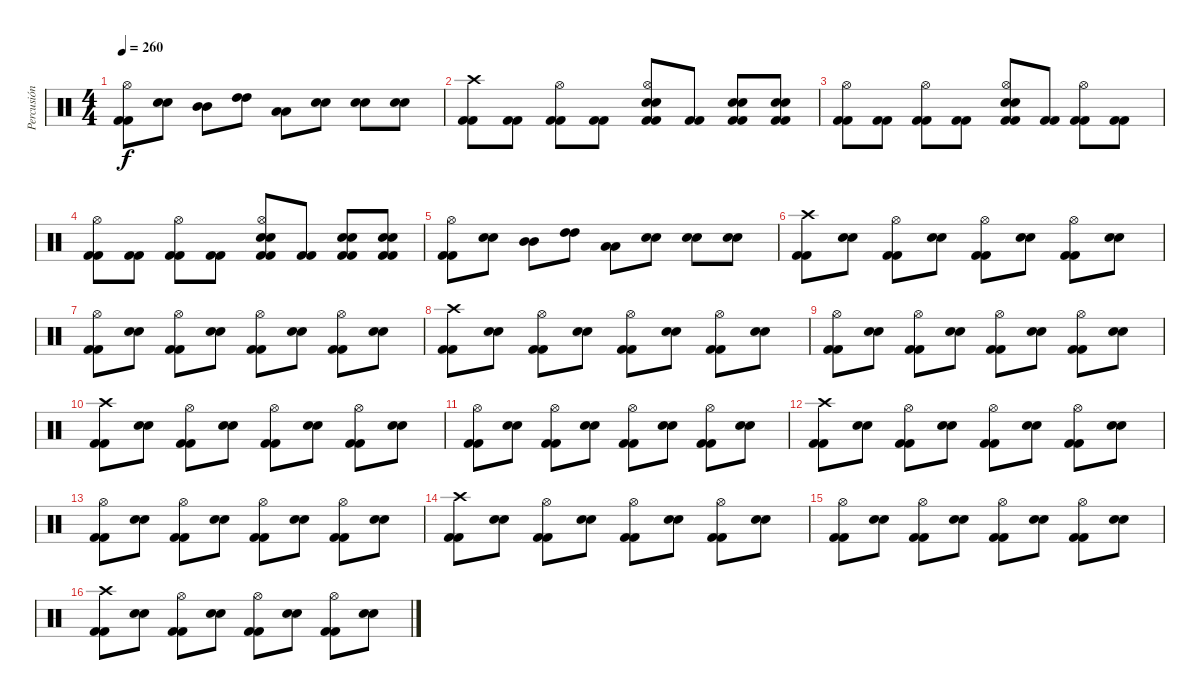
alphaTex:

\track ("Percusión" "Percusión") {instrument percussion}
\staff {score}
\articulation defaults
\ts (4 4)
\tempo 260
\clef neutral
\ks c
("Kick (hit) 2" "Kick (hit) 2" "Hi-Hat (open)").8{dy f} ("Electric Snare (hit)" "Electric Snare (hit)").8 ("Mid Tom (hit)" "Mid Tom (hit)").8 ("High Tom (hit)" "High Tom (hit)").8 ("Low Floor Tom (hit)" "Low Floor Tom (hit)").8 ("Electric Snare (hit)" "Electric Snare (hit)").8 ("Electric Snare (hit)" "Electric Snare (hit)").8 ("Electric Snare (hit)" "Electric Snare (hit)").8 |
("Kick (hit) 2" "Kick (hit) 2" "Crash high (hit)").8 ("Kick (hit) 2" "Kick (hit) 2").8 ("Kick (hit) 2" "Kick (hit) 2" "Hi-Hat (open)").8 ("Kick (hit) 2" "Kick (hit) 2").8 ("Kick (hit) 2" "Kick (hit) 2" "Electric Snare (hit)" "Electric Snare (hit)" "Hi-Hat (open)").8 ("Kick (hit) 2" "Kick (hit) 2").8 ("Kick (hit) 2" "Kick (hit) 2" "Electric Snare (hit)" "Electric Snare (hit)").8 ("Kick (hit) 2" "Kick (hit) 2" "Electric Snare (hit)" "Electric Snare (hit)").8 |
("Kick (hit) 2" "Kick (hit) 2" "Hi-Hat (open)").8 ("Kick (hit) 2" "Kick (hit) 2").8 ("Kick (hit) 2" "Kick (hit) 2" "Hi-Hat (open)").8 ("Kick (hit) 2" "Kick (hit) 2").8 ("Kick (hit) 2" "Kick (hit) 2" "Electric Snare (hit)" "Electric Snare (hit)" "Hi-Hat (open)").8 ("Kick (hit) 2" "Kick (hit) 2").8 ("Kick (hit) 2" "Kick (hit) 2" "Hi-Hat (open)").8 ("Kick (hit) 2" "Kick (hit) 2").8 |
("Kick (hit) 2" "Kick (hit) 2" "Hi-Hat (open)").8 ("Kick (hit) 2" "Kick (hit) 2").8 ("Kick (hit) 2" "Kick (hit) 2" "Hi-Hat (open)").8 ("Kick (hit) 2" "Kick (hit) 2").8 ("Kick (hit) 2" "Kick (hit) 2" "Electric Snare (hit)" "Electric Snare (hit)" "Hi-Hat (open)").8 ("Kick (hit) 2" "Kick (hit) 2").8 ("Kick (hit) 2" "Kick (hit) 2" "Electric Snare (hit)" "Electric Snare (hit)").8 ("Kick (hit) 2" "Kick (hit) 2" "Electric Snare (hit)" "Electric Snare (hit)").8 |
("Kick (hit) 2" "Kick (hit) 2" "Hi-Hat (open)").8 ("Electric Snare (hit)" "Electric Snare (hit)").8 ("Mid Tom (hit)" "Mid Tom (hit)").8 ("High Tom (hit)" "High Tom (hit)").8 ("Low Floor Tom (hit)" "Low Floor Tom (hit)").8 ("Electric Snare (hit)" "Electric Snare (hit)").8 ("Electric Snare (hit)" "Electric Snare (hit)").8 ("Electric Snare (hit)" "Electric Snare (hit)").8 |
("Kick (hit) 2" "Kick (hit) 2" "Crash high (hit)").8 ("Electric Snare (hit)" "Electric Snare (hit)").8 ("Kick (hit) 2" "Kick (hit) 2" "Hi-Hat (open)").8 ("Electric Snare (hit)" "Electric Snare (hit)").8 ("Kick (hit) 2" "Kick (hit) 2" "Hi-Hat (open)").8 ("Electric Snare (hit)" "Electric Snare (hit)").8 ("Kick (hit) 2" "Kick (hit) 2" "Hi-Hat (open)").8 ("Electric Snare (hit)" "Electric Snare (hit)").8 |
("Kick (hit) 2" "Kick (hit) 2" "Hi-Hat (open)").8 ("Electric Snare (hit)" "Electric Snare (hit)").8 ("Kick (hit) 2" "Kick (hit) 2" "Hi-Hat (open)").8 ("Electric Snare (hit)" "Electric Snare (hit)").8 ("Kick (hit) 2" "Kick (hit) 2" "Hi-Hat (open)").8 ("Electric Snare (hit)" "Electric Snare (hit)").8 ("Kick (hit) 2" "Kick (hit) 2" "Hi-Hat (open)").8 ("Electric Snare (hit)" "Electric Snare (hit)").8 |
("Kick (hit) 2" "Kick (hit) 2" "Crash high (hit)").8 ("Electric Snare (hit)" "Electric Snare (hit)").8 ("Kick (hit) 2" "Kick (hit) 2" "Hi-Hat (open)").8 ("Electric Snare (hit)" "Electric Snare (hit)").8 ("Kick (hit) 2" "Kick (hit) 2" "Hi-Hat (open)").8 ("Electric Snare (hit)" "Electric Snare (hit)").8 ("Kick (hit) 2" "Kick (hit) 2" "Hi-Hat (open)").8 ("Electric Snare (hit)" "Electric Snare (hit)").8 |
("Kick (hit) 2" "Kick (hit) 2" "Hi-Hat (open)").8 ("Electric Snare (hit)" "Electric Snare (hit)").8 ("Kick (hit) 2" "Kick (hit) 2" "Hi-Hat (open)").8 ("Electric Snare (hit)" "Electric Snare (hit)").8 ("Kick (hit) 2" "Kick (hit) 2" "Hi-Hat (open)").8 ("Electric Snare (hit)" "Electric Snare (hit)").8 ("Kick (hit) 2" "Kick (hit) 2" "Hi-Hat (open)").8 ("Electric Snare (hit)" "Electric Snare (hit)").8 |
("Kick (hit) 2" "Kick (hit) 2" "Crash high (hit)").8 ("Electric Snare (hit)" "Electric Snare (hit)").8 ("Kick (hit) 2" "Kick (hit) 2" "Hi-Hat (open)").8 ("Electric Snare (hit)" "Electric Snare (hit)").8 ("Kick (hit) 2" "Kick (hit) 2" "Hi-Hat (open)").8 ("Electric Snare (hit)" "Electric Snare (hit)").8 ("Kick (hit) 2" "Kick (hit) 2" "Hi-Hat (open)").8 ("Electric Snare (hit)" "Electric Snare (hit)").8 |
("Kick (hit) 2" "Kick (hit) 2" "Hi-Hat (open)").8 ("Electric Snare (hit)" "Electric Snare (hit)").8 ("Kick (hit) 2" "Kick (hit) 2" "Hi-Hat (open)").8 ("Electric Snare (hit)" "Electric Snare (hit)").8 ("Kick (hit) 2" "Kick (hit) 2" "Hi-Hat (open)").8 ("Electric Snare (hit)" "Electric Snare (hit)").8 ("Kick (hit) 2" "Kick (hit) 2" "Hi-Hat (open)").8 ("Electric Snare (hit)" "Electric Snare (hit)").8 |
("Kick (hit) 2" "Kick (hit) 2" "Crash high (hit)").8 ("Electric Snare (hit)" "Electric Snare (hit)").8 ("Kick (hit) 2" "Kick (hit) 2" "Hi-Hat (open)").8 ("Electric Snare (hit)" "Electric Snare (hit)").8 ("Kick (hit) 2" "Kick (hit) 2" "Hi-Hat (open)").8 ("Electric Snare (hit)" "Electric Snare (hit)").8 ("Kick (hit) 2" "Kick (hit) 2" "Hi-Hat (open)").8 ("Electric Snare (hit)" "Electric Snare (hit)").8 |
("Kick (hit) 2" "Kick (hit) 2" "Hi-Hat (open)").8 ("Electric Snare (hit)" "Electric Snare (hit)").8 ("Kick (hit) 2" "Kick (hit) 2" "Hi-Hat (open)").8 ("Electric Snare (hit)" "Electric Snare (hit)").8 ("Kick (hit) 2" "Kick (hit) 2" "Hi-Hat (open)").8 ("Electric Snare (hit)" "Electric Snare (hit)").8 ("Kick (hit) 2" "Kick (hit) 2" "Hi-Hat (open)").8 ("Electric Snare (hit)" "Electric Snare (hit)").8 |
("Kick (hit) 2" "Kick (hit) 2" "Crash high (hit)").8 ("Electric Snare (hit)" "Electric Snare (hit)").8 ("Kick (hit) 2" "Kick (hit) 2" "Hi-Hat (open)").8 ("Electric Snare (hit)" "Electric Snare (hit)").8 ("Kick (hit) 2" "Kick (hit) 2" "Hi-Hat (open)").8 ("Electric Snare (hit)" "Electric Snare (hit)").8 ("Kick (hit) 2" "Kick (hit) 2" "Hi-Hat (open)").8 ("Electric Snare (hit)" "Electric Snare (hit)").8 |
("Kick (hit) 2" "Kick (hit) 2" "Hi-Hat (open)").8 ("Electric Snare (hit)" "Electric Snare (hit)").8 ("Kick (hit) 2" "Kick (hit) 2" "Hi-Hat (open)").8 ("Electric Snare (hit)" "Electric Snare (hit)").8 ("Kick (hit) 2" "Kick (hit) 2" "Hi-Hat (open)").8 ("Electric Snare (hit)" "Electric Snare (hit)").8 ("Kick (hit) 2" "Kick (hit) 2" "Hi-Hat (open)").8 ("Electric Snare (hit)" "Electric Snare (hit)").8 |
("Kick (hit) 2" "Kick (hit) 2" "Crash high (hit)").8 ("Electric Snare (hit)" "Electric Snare (hit)").8 ("Kick (hit) 2" "Kick (hit) 2" "Hi-Hat (open)").8 ("Electric Snare (hit)" "Electric Snare (hit)").8 ("Kick (hit) 2" "Kick (hit) 2" "Hi-Hat (open)").8 ("Electric Snare (hit)" "Electric Snare (hit)").8 ("Kick (hit) 2" "Kick (hit) 2" "Hi-Hat (open)").8 ("Electric Snare (hit)" "Electric Snare (hit)").8
